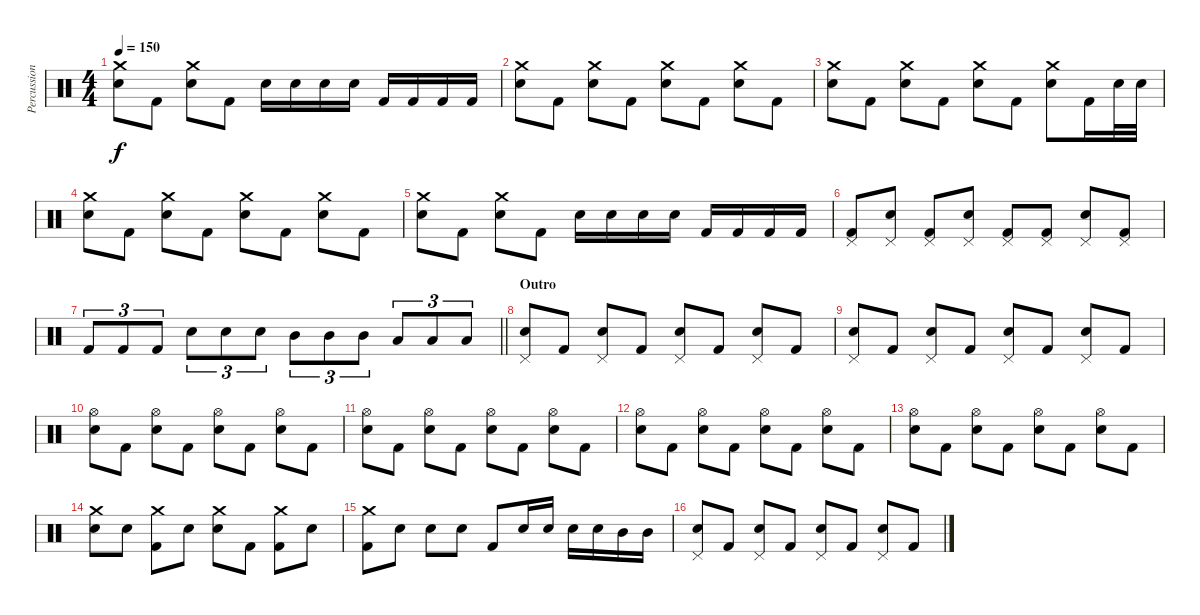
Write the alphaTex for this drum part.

\track ("Percussion" "Percussion") {instrument percussion}
\staff {score}
\articulation defaults
\ts (4 4)
\tempo 150
\clef neutral
\ks c
("Crash medium (hit)" "Electric Snare (hit)").8{dy f} "Kick (hit) 2".8 ("Crash medium (hit)" "Electric Snare (hit)").8 "Kick (hit) 2".8 "Electric Snare (hit)".16 "Electric Snare (hit)".16 "Electric Snare (hit)".16 "Electric Snare (hit)".16 "Kick (hit) 2".16 "Kick (hit) 2".16 "Kick (hit) 2".16 "Kick (hit) 2".16 |
("Crash medium (hit)" "Electric Snare (hit)").8 "Kick (hit) 2".8 ("Crash medium (hit)" "Electric Snare (hit)").8 "Kick (hit) 2".8 ("Crash medium (hit)" "Electric Snare (hit)").8 "Kick (hit) 2".8 ("Crash medium (hit)" "Electric Snare (hit)").8 "Kick (hit) 2".8 |
("Crash medium (hit)" "Electric Snare (hit)").8 "Kick (hit) 2".8 ("Crash medium (hit)" "Electric Snare (hit)").8 "Kick (hit) 2".8 ("Crash medium (hit)" "Electric Snare (hit)").8 "Kick (hit) 2".8 ("Crash medium (hit)" "Electric Snare (hit)").8 "Kick (hit) 2".16 "Electric Snare (hit)".32 "Electric Snare (hit)".32 |
("Crash medium (hit)" "Electric Snare (hit)").8 "Kick (hit) 2".8 ("Crash medium (hit)" "Electric Snare (hit)").8 "Kick (hit) 2".8 ("Crash medium (hit)" "Electric Snare (hit)").8 "Kick (hit) 2".8 ("Crash medium (hit)" "Electric Snare (hit)").8 "Kick (hit) 2".8 |
("Crash medium (hit)" "Electric Snare (hit)").8 "Kick (hit) 2".8 ("Crash medium (hit)" "Electric Snare (hit)").8 "Kick (hit) 2".8 "Electric Snare (hit)".16 "Electric Snare (hit)".16 "Electric Snare (hit)".16 "Electric Snare (hit)".16 "Kick (hit) 2".16 "Kick (hit) 2".16 "Kick (hit) 2".16 "Kick (hit) 2".16 |
("Pedal Hi-Hat (hit)" "Kick (hit) 2").8 ("Pedal Hi-Hat (hit)" "Electric Snare (hit)").8 ("Pedal Hi-Hat (hit)" "Kick (hit) 2").8 ("Pedal Hi-Hat (hit)" "Electric Snare (hit)").8 ("Pedal Hi-Hat (hit)" "Kick (hit) 2").8 ("Pedal Hi-Hat (hit)" "Kick (hit) 2").8 ("Pedal Hi-Hat (hit)" "Electric Snare (hit)").8 ("Pedal Hi-Hat (hit)" "Kick (hit) 2").8 |
\barLineRight lightlight "Kick (hit) 2".8{tu (3 2)} "Kick (hit) 2".8{tu (3 2)} "Kick (hit) 2".8{tu (3 2)} "Electric Snare (hit)".8{tu (3 2)} "Electric Snare (hit)".8{tu (3 2)} "Electric Snare (hit)".8{tu (3 2)} "Mid Tom (hit)".8{tu (3 2)} "Mid Tom (hit)".8{tu (3 2)} "Mid Tom (hit)".8{tu (3 2)} "Low Tom (hit)".8{tu (3 2)} "Low Tom (hit)".8{tu (3 2)} "Low Tom (hit)".8{tu (3 2)}
|
\section ("" "Outro")
("Pedal Hi-Hat (hit)" "Electric Snare (hit)").8 "Kick (hit) 2".8 ("Pedal Hi-Hat (hit)" "Electric Snare (hit)").8 "Kick (hit) 2".8 ("Pedal Hi-Hat (hit)" "Electric Snare (hit)").8 "Kick (hit) 2".8 ("Pedal Hi-Hat (hit)" "Electric Snare (hit)").8 "Kick (hit) 2".8 |
("Pedal Hi-Hat (hit)" "Electric Snare (hit)").8 "Kick (hit) 2".8 ("Pedal Hi-Hat (hit)" "Electric Snare (hit)").8 "Kick (hit) 2".8 ("Pedal Hi-Hat (hit)" "Electric Snare (hit)").8 "Kick (hit) 2".8 ("Pedal Hi-Hat (hit)" "Electric Snare (hit)").8 "Kick (hit) 2".8 |
("Hi-Hat (open)" "Electric Snare (hit)").8 "Kick (hit) 2".8 ("Hi-Hat (open)" "Electric Snare (hit)").8 "Kick (hit) 2".8 ("Hi-Hat (open)" "Electric Snare (hit)").8 "Kick (hit) 2".8 ("Hi-Hat (open)" "Electric Snare (hit)").8 "Kick (hit) 2".8 |
("Hi-Hat (open)" "Electric Snare (hit)").8 "Kick (hit) 2".8 ("Hi-Hat (open)" "Electric Snare (hit)").8 "Kick (hit) 2".8 ("Hi-Hat (open)" "Electric Snare (hit)").8 "Kick (hit) 2".8 ("Hi-Hat (open)" "Electric Snare (hit)").8 "Kick (hit) 2".8 |
("Hi-Hat (open)" "Electric Snare (hit)").8 "Kick (hit) 2".8 ("Hi-Hat (open)" "Electric Snare (hit)").8 "Kick (hit) 2".8 ("Hi-Hat (open)" "Electric Snare (hit)").8 "Kick (hit) 2".8 ("Hi-Hat (open)" "Electric Snare (hit)").8 "Kick (hit) 2".8 |
("Hi-Hat (open)" "Electric Snare (hit)").8 "Kick (hit) 2".8 ("Hi-Hat (open)" "Electric Snare (hit)").8 "Kick (hit) 2".8 ("Hi-Hat (open)" "Electric Snare (hit)").8 "Kick (hit) 2".8 ("Hi-Hat (open)" "Electric Snare (hit)").8 "Kick (hit) 2".8 |
("Crash medium (hit)" "Electric Snare (hit)").8 "Electric Snare (hit)".8 ("Crash medium (hit)" "Kick (hit) 2").8 "Electric Snare (hit)".8 ("Crash medium (hit)" "Electric Snare (hit)").8 "Kick (hit) 2".8 ("Crash medium (hit)" "Kick (hit) 2").8 "Electric Snare (hit)".8 |
("Crash medium (hit)" "Kick (hit) 2").8 "Electric Snare (hit)".8 "Electric Snare (hit)".8 "Electric Snare (hit)".8 "Kick (hit) 2".8 "Electric Snare (hit)".16 "Electric Snare (hit)".16 "Electric Snare (hit)".16 "Electric Snare (hit)".16 "Mid Tom (hit)".16 "Mid Tom (hit)".16 |
("Pedal Hi-Hat (hit)" "Electric Snare (hit)").8 "Kick (hit) 2".8 ("Pedal Hi-Hat (hit)" "Electric Snare (hit)").8 "Kick (hit) 2".8 ("Pedal Hi-Hat (hit)" "Electric Snare (hit)").8 "Kick (hit) 2".8 ("Pedal Hi-Hat (hit)" "Electric Snare (hit)").8 "Kick (hit) 2".8
